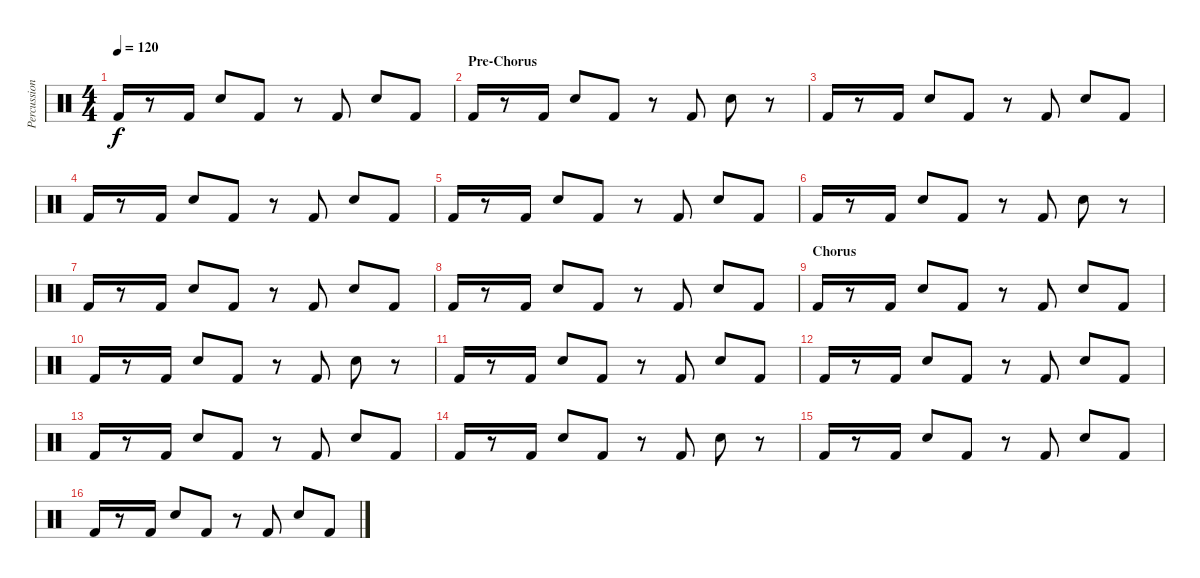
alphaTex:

\track ("Percussion" "Percussion") {instrument percussion}
\staff {score}
\articulation defaults
\ts (4 4)
\tempo 120
\clef neutral
\ks c "Kick (hit) 2".16{dy f}
r.8 "Kick (hit) 2".16 "Electric Snare (hit)".8 "Kick (hit) 2".8 r.8 "Kick (hit) 2".8 "Snare (hit) 2".8 "Kick (hit) 2".8 |
\section ("" "Pre-Chorus")
"Kick (hit) 2".16 r.8 "Kick (hit) 2".16 "Electric Snare (hit)".8 "Kick (hit) 2".8 r.8 "Kick (hit) 2".8 "Snare (hit) 2".8 r.8 |
"Kick (hit) 2".16 r.8 "Kick (hit) 2".16 "Electric Snare (hit)".8 "Kick (hit) 2".8 r.8 "Kick (hit) 2".8 "Snare (hit) 2".8 "Kick (hit) 2".8 |
"Kick (hit) 2".16 r.8 "Kick (hit) 2".16 "Electric Snare (hit)".8 "Kick (hit) 2".8 r.8 "Kick (hit) 2".8 "Snare (hit) 2".8 "Kick (hit) 2".8 |
"Kick (hit) 2".16 r.8 "Kick (hit) 2".16 "Electric Snare (hit)".8 "Kick (hit) 2".8 r.8 "Kick (hit) 2".8 "Snare (hit) 2".8 "Kick (hit) 2".8 |
"Kick (hit) 2".16 r.8 "Kick (hit) 2".16 "Electric Snare (hit)".8 "Kick (hit) 2".8 r.8 "Kick (hit) 2".8 "Snare (hit) 2".8 r.8 |
"Kick (hit) 2".16 r.8 "Kick (hit) 2".16 "Electric Snare (hit)".8 "Kick (hit) 2".8 r.8 "Kick (hit) 2".8 "Snare (hit) 2".8 "Kick (hit) 2".8 |
"Kick (hit) 2".16 r.8 "Kick (hit) 2".16 "Electric Snare (hit)".8 "Kick (hit) 2".8 r.8 "Kick (hit) 2".8 "Snare (hit) 2".8 "Kick (hit) 2".8 |
\section ("" "Chorus")
"Kick (hit) 2".16 r.8 "Kick (hit) 2".16 "Electric Snare (hit)".8 "Kick (hit) 2".8 r.8 "Kick (hit) 2".8 "Snare (hit) 2".8 "Kick (hit) 2".8 |
"Kick (hit) 2".16 r.8 "Kick (hit) 2".16 "Electric Snare (hit)".8 "Kick (hit) 2".8 r.8 "Kick (hit) 2".8 "Snare (hit) 2".8 r.8 |
"Kick (hit) 2".16 r.8 "Kick (hit) 2".16 "Electric Snare (hit)".8 "Kick (hit) 2".8 r.8 "Kick (hit) 2".8 "Snare (hit) 2".8 "Kick (hit) 2".8 |
"Kick (hit) 2".16 r.8 "Kick (hit) 2".16 "Electric Snare (hit)".8 "Kick (hit) 2".8 r.8 "Kick (hit) 2".8 "Snare (hit) 2".8 "Kick (hit) 2".8 |
"Kick (hit) 2".16 r.8 "Kick (hit) 2".16 "Electric Snare (hit)".8 "Kick (hit) 2".8 r.8 "Kick (hit) 2".8 "Snare (hit) 2".8 "Kick (hit) 2".8 |
"Kick (hit) 2".16 r.8 "Kick (hit) 2".16 "Electric Snare (hit)".8 "Kick (hit) 2".8 r.8 "Kick (hit) 2".8 "Snare (hit) 2".8 r.8 |
"Kick (hit) 2".16 r.8 "Kick (hit) 2".16 "Electric Snare (hit)".8 "Kick (hit) 2".8 r.8 "Kick (hit) 2".8 "Snare (hit) 2".8 "Kick (hit) 2".8 |
"Kick (hit) 2".16 r.8 "Kick (hit) 2".16 "Electric Snare (hit)".8 "Kick (hit) 2".8 r.8 "Kick (hit) 2".8 "Snare (hit) 2".8 "Kick (hit) 2".8
